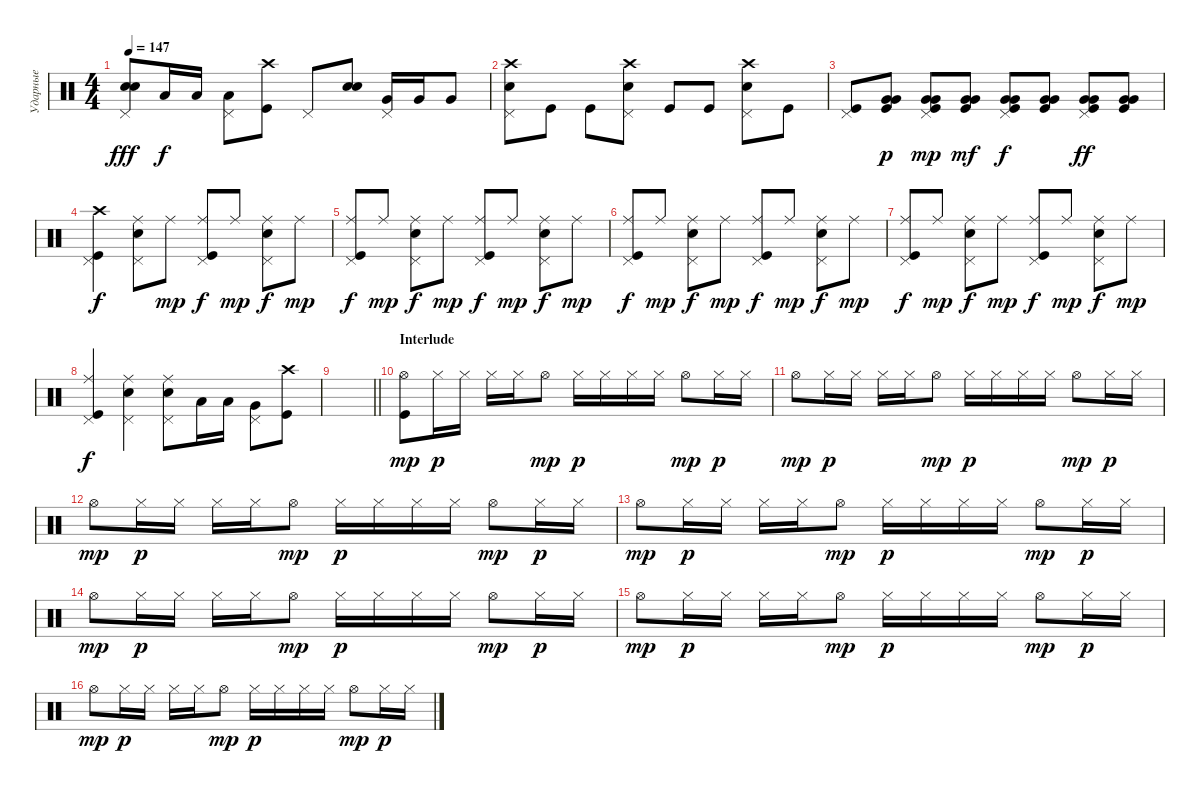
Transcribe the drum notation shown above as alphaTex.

\track ("Ударные" "Ударные") {instrument percussion}
\staff {score}
\articulation defaults
\ts (4 4)
\tempo 147
\clef neutral
\ks c
("Snare (hit) 2" "Snare (hit) 2" "Pedal Hi-Hat (hit)").8{bd 240 dy fff} "Low Tom (hit)".16{dy f} "Low Tom (hit)".16 ("Low Tom (hit)" "Pedal Hi-Hat (hit)").8 ("Kick (hit)" "Crash high (hit)").8 "Pedal Hi-Hat (hit)".8 ("Snare (hit) 2" "Snare (hit) 2").8{bd 240} ("Very Low Tom (hit)" "Pedal Hi-Hat (hit)").16 "Very Low Tom (hit)".16 "Very Low Tom (hit)".8 |
("Snare (hit) 2" "Crash high (hit)" "Pedal Hi-Hat (hit)").8 "Kick (hit)".8 "Kick (hit)".8 ("Snare (hit) 2" "Crash high (hit)" "Pedal Hi-Hat (hit)").8 "Kick (hit)".8 "Kick (hit)".8 ("Snare (hit) 2" "Crash high (hit)" "Pedal Hi-Hat (hit)").8 "Kick (hit)".8 |
("Kick (hit)" "Pedal Hi-Hat (hit)").8 ("Kick (hit)" "Very Low Tom (hit)" "Very Low Tom (hit)").8{bd 60 dy p} ("Kick (hit)" "Very Low Tom (hit)" "Pedal Hi-Hat (hit)" "Very Low Tom (hit)").8{bd 60 dy mp} ("Kick (hit)" "Very Low Tom (hit)" "Very Low Tom (hit)").8{bd 240 dy mf} ("Kick (hit)" "Very Low Tom (hit)" "Pedal Hi-Hat (hit)" "Very Low Tom (hit)").8{bd 240 dy f} ("Kick (hit)" "Very Low Tom (hit)" "Very Low Tom (hit)").8{bd 240} ("Kick (hit)" "Very Low Tom (hit)" "Pedal Hi-Hat (hit)" "Very Low Tom (hit)").8{bd 240 dy ff} ("Kick (hit)" "Very Low Tom (hit)" "Very Low Tom (hit)").8{bd 240} |
("Kick (hit)" "Pedal Hi-Hat (hit)" "Crash high (hit)").4{dy f} ("Snare (hit) 2" "Ride (middle)" "Pedal Hi-Hat (hit)").8 "Ride (middle)".8{dy mp} ("Kick (hit)" "Ride (middle)" "Pedal Hi-Hat (hit)").8{dy f} "Ride (middle)".8{dy mp} ("Snare (hit) 2" "Ride (middle)" "Pedal Hi-Hat (hit)").8{dy f} "Ride (middle)".8{dy mp} |
("Kick (hit)" "Ride (middle)" "Pedal Hi-Hat (hit)").8{dy f} "Ride (middle)".8{dy mp} ("Snare (hit) 2" "Ride (middle)" "Pedal Hi-Hat (hit)").8{dy f} "Ride (middle)".8{dy mp} ("Kick (hit)" "Pedal Hi-Hat (hit)" "Ride (middle)").8{dy f} "Ride (middle)".8{dy mp} ("Snare (hit) 2" "Pedal Hi-Hat (hit)" "Ride (middle)").8{dy f} "Ride (middle)".8{dy mp} |
("Kick (hit)" "Ride (middle)" "Pedal Hi-Hat (hit)").8{dy f} "Ride (middle)".8{dy mp} ("Snare (hit) 2" "Ride (middle)" "Pedal Hi-Hat (hit)").8{dy f} "Ride (middle)".8{dy mp} ("Kick (hit)" "Pedal Hi-Hat (hit)" "Ride (middle)").8{dy f} "Ride (middle)".8{dy mp} ("Snare (hit) 2" "Pedal Hi-Hat (hit)" "Ride (middle)").8{dy f} "Ride (middle)".8{dy mp} |
("Kick (hit)" "Ride (middle)" "Pedal Hi-Hat (hit)").8{dy f} "Ride (middle)".8{dy mp} ("Snare (hit) 2" "Ride (middle)" "Pedal Hi-Hat (hit)").8{dy f} "Ride (middle)".8{dy mp} ("Kick (hit)" "Pedal Hi-Hat (hit)" "Ride (middle)").8{dy f} "Ride (middle)".8{dy mp} ("Snare (hit) 2" "Pedal Hi-Hat (hit)" "Ride (middle)").8{dy f} "Ride (middle)".8{dy mp} |
("Kick (hit)" "Ride (middle)" "Pedal Hi-Hat (hit)").4{dy f} ("Snare (hit) 2" "Ride (middle)" "Pedal Hi-Hat (hit)").4 ("Snare (hit) 2" "Ride (middle)" "Pedal Hi-Hat (hit)").8 "Low Tom (hit)".16 "Low Tom (hit)".16 ("Very Low Tom (hit)" "Pedal Hi-Hat (hit)").8 ("Kick (hit)" "Crash high (hit)").8 |
\barLineRight lightlight
|
\section ("" "Interlude")
("Hi-Hat (open)" "Kick (hit)").8{dy mp} "Hi-Hat (closed)".16{dy p} "Hi-Hat (closed)".16 "Hi-Hat (closed)".16 "Hi-Hat (closed)".16 "Hi-Hat (open)".8{dy mp} "Hi-Hat (closed)".16{dy p} "Hi-Hat (closed)".16 "Hi-Hat (closed)".16 "Hi-Hat (closed)".16 "Hi-Hat (open)".8{dy mp} "Hi-Hat (closed)".16{dy p} "Hi-Hat (closed)".16 |
"Hi-Hat (open)".8{dy mp} "Hi-Hat (closed)".16{dy p} "Hi-Hat (closed)".16 "Hi-Hat (closed)".16 "Hi-Hat (closed)".16 "Hi-Hat (open)".8{dy mp} "Hi-Hat (closed)".16{dy p} "Hi-Hat (closed)".16 "Hi-Hat (closed)".16 "Hi-Hat (closed)".16 "Hi-Hat (open)".8{dy mp} "Hi-Hat (closed)".16{dy p} "Hi-Hat (closed)".16 |
"Hi-Hat (open)".8{dy mp} "Hi-Hat (closed)".16{dy p} "Hi-Hat (closed)".16 "Hi-Hat (closed)".16 "Hi-Hat (closed)".16 "Hi-Hat (open)".8{dy mp} "Hi-Hat (closed)".16{dy p} "Hi-Hat (closed)".16 "Hi-Hat (closed)".16 "Hi-Hat (closed)".16 "Hi-Hat (open)".8{dy mp} "Hi-Hat (closed)".16{dy p} "Hi-Hat (closed)".16 |
"Hi-Hat (open)".8{dy mp} "Hi-Hat (closed)".16{dy p} "Hi-Hat (closed)".16 "Hi-Hat (closed)".16 "Hi-Hat (closed)".16 "Hi-Hat (open)".8{dy mp} "Hi-Hat (closed)".16{dy p} "Hi-Hat (closed)".16 "Hi-Hat (closed)".16 "Hi-Hat (closed)".16 "Hi-Hat (open)".8{dy mp} "Hi-Hat (closed)".16{dy p} "Hi-Hat (closed)".16 |
"Hi-Hat (open)".8{dy mp} "Hi-Hat (closed)".16{dy p} "Hi-Hat (closed)".16 "Hi-Hat (closed)".16 "Hi-Hat (closed)".16 "Hi-Hat (open)".8{dy mp} "Hi-Hat (closed)".16{dy p} "Hi-Hat (closed)".16 "Hi-Hat (closed)".16 "Hi-Hat (closed)".16 "Hi-Hat (open)".8{dy mp} "Hi-Hat (closed)".16{dy p} "Hi-Hat (closed)".16 |
"Hi-Hat (open)".8{dy mp} "Hi-Hat (closed)".16{dy p} "Hi-Hat (closed)".16 "Hi-Hat (closed)".16 "Hi-Hat (closed)".16 "Hi-Hat (open)".8{dy mp} "Hi-Hat (closed)".16{dy p} "Hi-Hat (closed)".16 "Hi-Hat (closed)".16 "Hi-Hat (closed)".16 "Hi-Hat (open)".8{dy mp} "Hi-Hat (closed)".16{dy p} "Hi-Hat (closed)".16 |
"Hi-Hat (open)".8{dy mp} "Hi-Hat (closed)".16{dy p} "Hi-Hat (closed)".16 "Hi-Hat (closed)".16 "Hi-Hat (closed)".16 "Hi-Hat (open)".8{dy mp} "Hi-Hat (closed)".16{dy p} "Hi-Hat (closed)".16 "Hi-Hat (closed)".16 "Hi-Hat (closed)".16 "Hi-Hat (open)".8{dy mp} "Hi-Hat (closed)".16{dy p} "Hi-Hat (closed)".16
